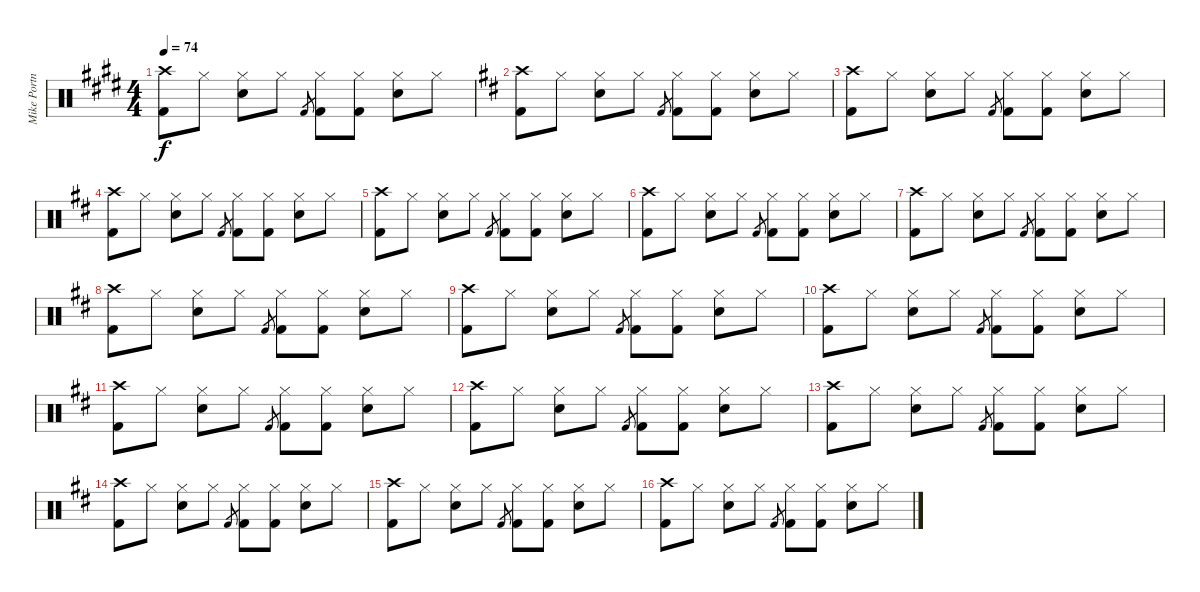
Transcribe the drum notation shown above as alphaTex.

\track ("Mike Portnoy" "Mike Portn") {instrument percussion}
\staff {score}
\articulation defaults
\ts (4 4)
\tempo 74
\clef neutral
\ks e
("Crash high (hit)" "Kick (hit) 2").8{dy f} "Hi-Hat (closed)".8 ("Hi-Hat (closed)" "Snare (hit) 2").8 "Hi-Hat (closed)".8 "Kick (hit) 2".8{gr} ("Hi-Hat (closed)" "Kick (hit) 2").8 ("Hi-Hat (closed)" "Kick (hit) 2").8 ("Hi-Hat (closed)" "Snare (hit) 2").8 "Hi-Hat (closed)".8 |
\ks bminor
("Crash high (hit)" "Kick (hit) 2").8 "Hi-Hat (closed)".8 ("Hi-Hat (closed)" "Snare (hit) 2").8 "Hi-Hat (closed)".8 "Kick (hit) 2".8{gr} ("Hi-Hat (closed)" "Kick (hit) 2").8 ("Hi-Hat (closed)" "Kick (hit) 2").8 ("Hi-Hat (closed)" "Snare (hit) 2").8 "Hi-Hat (closed)".8 |
("Crash high (hit)" "Kick (hit) 2").8 "Hi-Hat (closed)".8 ("Hi-Hat (closed)" "Snare (hit) 2").8 "Hi-Hat (closed)".8 "Kick (hit) 2".8{gr} ("Hi-Hat (closed)" "Kick (hit) 2").8 ("Hi-Hat (closed)" "Kick (hit) 2").8 ("Hi-Hat (closed)" "Snare (hit) 2").8 "Hi-Hat (closed)".8 |
("Crash high (hit)" "Kick (hit) 2").8 "Hi-Hat (closed)".8 ("Hi-Hat (closed)" "Snare (hit) 2").8 "Hi-Hat (closed)".8 "Kick (hit) 2".8{gr} ("Hi-Hat (closed)" "Kick (hit) 2").8 ("Hi-Hat (closed)" "Kick (hit) 2").8 ("Hi-Hat (closed)" "Snare (hit) 2").8 "Hi-Hat (closed)".8 |
("Crash high (hit)" "Kick (hit) 2").8 "Hi-Hat (closed)".8 ("Hi-Hat (closed)" "Snare (hit) 2").8 "Hi-Hat (closed)".8 "Kick (hit) 2".8{gr} ("Hi-Hat (closed)" "Kick (hit) 2").8 ("Hi-Hat (closed)" "Kick (hit) 2").8 ("Hi-Hat (closed)" "Snare (hit) 2").8 "Hi-Hat (closed)".8 |
("Crash high (hit)" "Kick (hit) 2").8 "Hi-Hat (closed)".8 ("Hi-Hat (closed)" "Snare (hit) 2").8 "Hi-Hat (closed)".8 "Kick (hit) 2".8{gr} ("Hi-Hat (closed)" "Kick (hit) 2").8 ("Hi-Hat (closed)" "Kick (hit) 2").8 ("Hi-Hat (closed)" "Snare (hit) 2").8 "Hi-Hat (closed)".8 |
("Crash high (hit)" "Kick (hit) 2").8 "Hi-Hat (closed)".8 ("Hi-Hat (closed)" "Snare (hit) 2").8 "Hi-Hat (closed)".8 "Kick (hit) 2".8{gr} ("Hi-Hat (closed)" "Kick (hit) 2").8 ("Hi-Hat (closed)" "Kick (hit) 2").8 ("Hi-Hat (closed)" "Snare (hit) 2").8 "Hi-Hat (closed)".8 |
("Crash high (hit)" "Kick (hit) 2").8 "Hi-Hat (closed)".8 ("Hi-Hat (closed)" "Snare (hit) 2").8 "Hi-Hat (closed)".8 "Kick (hit) 2".8{gr} ("Hi-Hat (closed)" "Kick (hit) 2").8 ("Hi-Hat (closed)" "Kick (hit) 2").8 ("Hi-Hat (closed)" "Snare (hit) 2").8 "Hi-Hat (closed)".8 |
("Crash high (hit)" "Kick (hit) 2").8 "Hi-Hat (closed)".8 ("Hi-Hat (closed)" "Snare (hit) 2").8 "Hi-Hat (closed)".8 "Kick (hit) 2".8{gr} ("Hi-Hat (closed)" "Kick (hit) 2").8 ("Hi-Hat (closed)" "Kick (hit) 2").8 ("Hi-Hat (closed)" "Snare (hit) 2").8 "Hi-Hat (closed)".8 |
("Crash high (hit)" "Kick (hit) 2").8 "Hi-Hat (closed)".8 ("Hi-Hat (closed)" "Snare (hit) 2").8 "Hi-Hat (closed)".8 "Kick (hit) 2".8{gr} ("Hi-Hat (closed)" "Kick (hit) 2").8 ("Hi-Hat (closed)" "Kick (hit) 2").8 ("Hi-Hat (closed)" "Snare (hit) 2").8 "Hi-Hat (closed)".8 |
("Crash high (hit)" "Kick (hit) 2").8 "Hi-Hat (closed)".8 ("Hi-Hat (closed)" "Snare (hit) 2").8 "Hi-Hat (closed)".8 "Kick (hit) 2".8{gr} ("Hi-Hat (closed)" "Kick (hit) 2").8 ("Hi-Hat (closed)" "Kick (hit) 2").8 ("Hi-Hat (closed)" "Snare (hit) 2").8 "Hi-Hat (closed)".8 |
("Crash high (hit)" "Kick (hit) 2").8 "Hi-Hat (closed)".8 ("Hi-Hat (closed)" "Snare (hit) 2").8 "Hi-Hat (closed)".8 "Kick (hit) 2".8{gr} ("Hi-Hat (closed)" "Kick (hit) 2").8 ("Hi-Hat (closed)" "Kick (hit) 2").8 ("Hi-Hat (closed)" "Snare (hit) 2").8 "Hi-Hat (closed)".8 |
("Crash high (hit)" "Kick (hit) 2").8 "Hi-Hat (closed)".8 ("Hi-Hat (closed)" "Snare (hit) 2").8 "Hi-Hat (closed)".8 "Kick (hit) 2".8{gr} ("Hi-Hat (closed)" "Kick (hit) 2").8 ("Hi-Hat (closed)" "Kick (hit) 2").8 ("Hi-Hat (closed)" "Snare (hit) 2").8 "Hi-Hat (closed)".8 |
("Crash high (hit)" "Kick (hit) 2").8 "Hi-Hat (closed)".8 ("Hi-Hat (closed)" "Snare (hit) 2").8 "Hi-Hat (closed)".8 "Kick (hit) 2".8{gr} ("Hi-Hat (closed)" "Kick (hit) 2").8 ("Hi-Hat (closed)" "Kick (hit) 2").8 ("Hi-Hat (closed)" "Snare (hit) 2").8 "Hi-Hat (closed)".8 |
("Crash high (hit)" "Kick (hit) 2").8 "Hi-Hat (closed)".8 ("Hi-Hat (closed)" "Snare (hit) 2").8 "Hi-Hat (closed)".8 "Kick (hit) 2".8{gr} ("Hi-Hat (closed)" "Kick (hit) 2").8 ("Hi-Hat (closed)" "Kick (hit) 2").8 ("Hi-Hat (closed)" "Snare (hit) 2").8 "Hi-Hat (closed)".8 |
("Crash high (hit)" "Kick (hit) 2").8 "Hi-Hat (closed)".8 ("Hi-Hat (closed)" "Snare (hit) 2").8 "Hi-Hat (closed)".8 "Kick (hit) 2".8{gr} ("Hi-Hat (closed)" "Kick (hit) 2").8 ("Hi-Hat (closed)" "Kick (hit) 2").8 ("Hi-Hat (closed)" "Snare (hit) 2").8 "Hi-Hat (closed)".8
